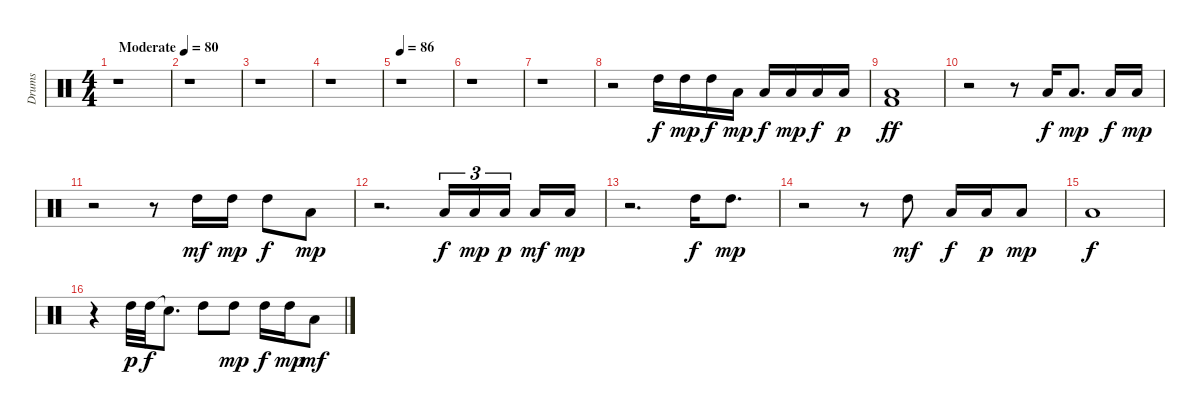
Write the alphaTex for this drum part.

\track ("Drums" "Drums") {instrument percussion}
\staff {score}
\articulation defaults
\ts (4 4)
\tempo (80 "Moderate")
\clef neutral
\ks c
r.1{dy f} |
r.1 |
r.1 |
r.1 |
\tempo 86
r.1 |
r.1 |
r.1 |
r.2 "High Tom (hit)".16 "High Tom (hit)".16{dy mp} "High Tom (hit)".16{dy f} "Low Tom (hit)".16{dy mp} "Low Tom (hit)".16{dy f} "Low Tom (hit)".16{dy mp} "Low Tom (hit)".16{dy f} "Low Tom (hit)".16{dy p} |
("Low Floor Tom (hit)" "Kick (hit) 2").1{dy ff} |
r.2 r.8 "Low Tom (hit)".16{dy f} "Low Tom (hit)".8{d dy mp} "Low Floor Tom (hit)".16{dy f} "Low Floor Tom (hit)".16{dy mp} |
r.2 r.8 "High Tom (hit)".16{dy mf} "High Tom (hit)".16{dy mp} "High Tom (hit)".8{dy f} "Low Tom (hit)".8{dy mp} |
r.2{d} "Low Floor Tom (hit)".16{tu (3 2) dy f} "Low Floor Tom (hit)".16{tu (3 2) dy mp} "Low Floor Tom (hit)".16{tu (3 2) dy p beam splitsecondary} "Low Floor Tom (hit)".16{dy mf} "Low Floor Tom (hit)".16{dy mp} |
r.2{d} "High Tom (hit)".16{dy f} "High Tom (hit)".8{d dy mp} |
r.2 r.8 "High Tom (hit)".8{dy mf} "Low Tom (hit)".16{dy f} "Low Tom (hit)".16{dy p} "Low Tom (hit)".8{dy mp} |
"Low Floor Tom (hit)".1{dy f} |
r.4 "High Tom (hit)".32{dy p} "High Tom (hit)".32{dy f} "Snare (hit)"{t}.8{d} "High Tom (hit)".8 "High Tom (hit)".8{dy mp} "High Tom (hit)".16{dy f} "High Tom (hit)".16{dy mp} "Low Tom (hit)".8{dy mf}
